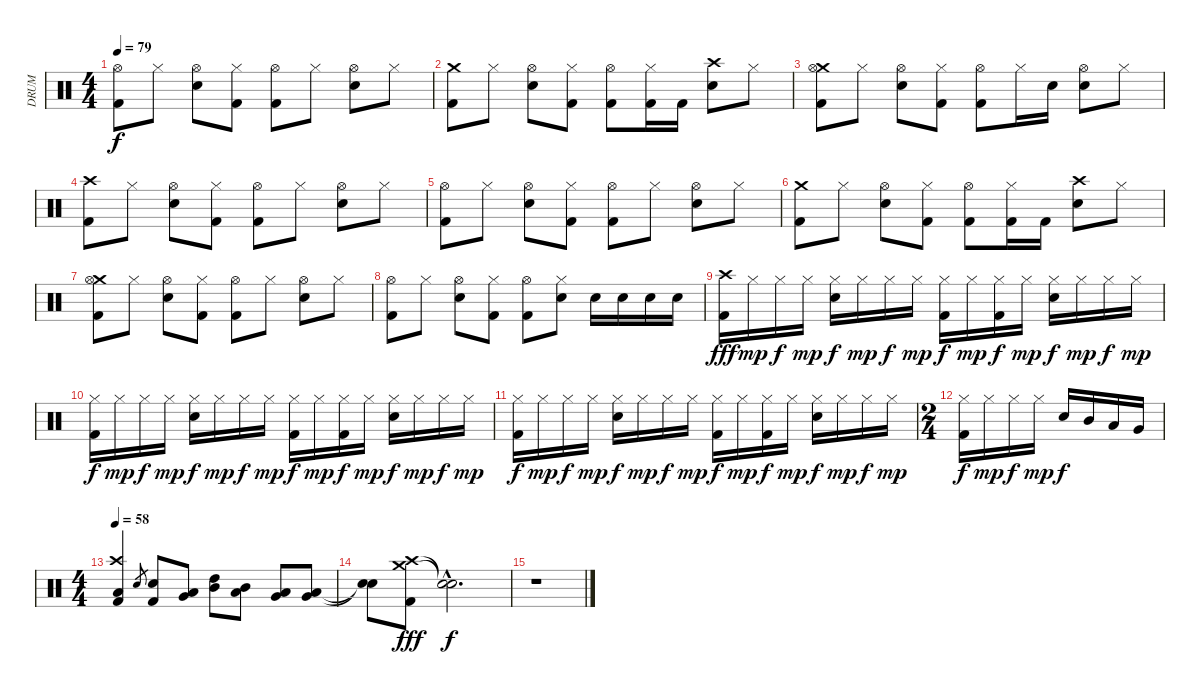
\track ("DRUM" "DRUM") {instrument percussion}
\staff {score}
\articulation defaults
\ts (4 4)
\tempo 79
\clef neutral
\ks c
("Hi-Hat (open)" "Kick (hit) 2").8{dy f} "Hi-Hat (closed)".8 ("Snare (hit) 2" "Hi-Hat (open)").8 ("Hi-Hat (closed)" "Kick (hit) 2").8 ("Hi-Hat (open)" "Kick (hit) 2").8 "Hi-Hat (closed)".8 ("Snare (hit) 2" "Hi-Hat (open)").8 "Hi-Hat (closed)".8 |
("Crash medium (hit)" "Kick (hit) 2").8 "Hi-Hat (closed)".8 ("Snare (hit) 2" "Hi-Hat (open)").8 ("Hi-Hat (closed)" "Kick (hit) 2").8 ("Hi-Hat (open)" "Kick (hit) 2").8 ("Hi-Hat (closed)" "Kick (hit) 2").16 "Kick (hit) 2".16 ("Crash high (hit)" "Snare (hit) 2").8 "Hi-Hat (closed)".8 |
("Crash medium (hit)" "Hi-Hat (open)" "Kick (hit) 2").8 "Hi-Hat (closed)".8 ("Snare (hit) 2" "Hi-Hat (open)").8 ("Hi-Hat (closed)" "Kick (hit) 2").8 ("Hi-Hat (open)" "Kick (hit) 2").8 "Hi-Hat (closed)".16 "Snare (hit) 2".16 ("Snare (hit) 2" "Hi-Hat (open)").8 "Hi-Hat (closed)".8 |
("Crash high (hit)" "Kick (hit) 2").8 "Hi-Hat (closed)".8 ("Snare (hit) 2" "Hi-Hat (open)").8 ("Hi-Hat (closed)" "Kick (hit) 2").8 ("Hi-Hat (open)" "Kick (hit) 2").8 "Hi-Hat (closed)".8 ("Snare (hit) 2" "Hi-Hat (open)").8 "Hi-Hat (closed)".8 |
("Hi-Hat (open)" "Kick (hit) 2").8 "Hi-Hat (closed)".8 ("Snare (hit) 2" "Hi-Hat (open)").8 ("Hi-Hat (closed)" "Kick (hit) 2").8 ("Hi-Hat (open)" "Kick (hit) 2").8 "Hi-Hat (closed)".8 ("Snare (hit) 2" "Hi-Hat (open)").8 "Hi-Hat (closed)".8 |
("Crash medium (hit)" "Kick (hit) 2").8 "Hi-Hat (closed)".8 ("Snare (hit) 2" "Hi-Hat (open)").8 ("Hi-Hat (closed)" "Kick (hit) 2").8 ("Hi-Hat (open)" "Kick (hit) 2").8 ("Hi-Hat (closed)" "Kick (hit) 2").16 "Kick (hit) 2".16 ("Crash high (hit)" "Snare (hit) 2").8 "Hi-Hat (closed)".8 |
("Crash medium (hit)" "Hi-Hat (open)" "Kick (hit) 2").8 "Hi-Hat (closed)".8 ("Snare (hit) 2" "Hi-Hat (open)").8 ("Hi-Hat (closed)" "Kick (hit) 2").8 ("Hi-Hat (open)" "Kick (hit) 2").8 "Hi-Hat (closed)".8 ("Snare (hit) 2" "Hi-Hat (open)").8 "Hi-Hat (closed)".8 |
("Hi-Hat (open)" "Kick (hit) 2").8 "Hi-Hat (closed)".8 ("Snare (hit) 2" "Hi-Hat (open)").8 ("Hi-Hat (closed)" "Kick (hit) 2").8 ("Hi-Hat (open)" "Kick (hit) 2").8 ("Snare (hit) 2" "Hi-Hat (closed)").8 "Snare (hit) 2".16 "Snare (hit) 2".16 "Snare (hit) 2".16 "Snare (hit) 2".16 |
("Crash high (hit)" "Kick (hit) 2").16{dy fff} "Hi-Hat (closed)".16{dy mp} "Hi-Hat (closed)".16{dy f} "Hi-Hat (closed)".16{dy mp} ("Snare (hit) 2" "Hi-Hat (closed)").16{dy f} "Hi-Hat (closed)".16{dy mp} "Hi-Hat (closed)".16{dy f} "Hi-Hat (closed)".16{dy mp} ("Hi-Hat (closed)" "Kick (hit) 2").16{dy f} "Hi-Hat (closed)".16{dy mp} ("Hi-Hat (closed)" "Kick (hit) 2").16{dy f} "Hi-Hat (closed)".16{dy mp} ("Snare (hit) 2" "Hi-Hat (closed)").16{dy f} "Hi-Hat (closed)".16{dy mp} "Hi-Hat (closed)".16{dy f} "Hi-Hat (closed)".16{dy mp} |
("Hi-Hat (closed)" "Kick (hit) 2").16{dy f} "Hi-Hat (closed)".16{dy mp} "Hi-Hat (closed)".16{dy f} "Hi-Hat (closed)".16{dy mp} ("Snare (hit) 2" "Hi-Hat (closed)").16{dy f} "Hi-Hat (closed)".16{dy mp} "Hi-Hat (closed)".16{dy f} "Hi-Hat (closed)".16{dy mp} ("Hi-Hat (closed)" "Kick (hit) 2").16{dy f} "Hi-Hat (closed)".16{dy mp} ("Hi-Hat (closed)" "Kick (hit) 2").16{dy f} "Hi-Hat (closed)".16{dy mp} ("Snare (hit) 2" "Hi-Hat (closed)").16{dy f} "Hi-Hat (closed)".16{dy mp} "Hi-Hat (closed)".16{dy f} "Hi-Hat (closed)".16{dy mp} |
("Hi-Hat (closed)" "Kick (hit) 2").16{dy f} "Hi-Hat (closed)".16{dy mp} "Hi-Hat (closed)".16{dy f} "Hi-Hat (closed)".16{dy mp} ("Snare (hit) 2" "Hi-Hat (closed)").16{dy f} "Hi-Hat (closed)".16{dy mp} "Hi-Hat (closed)".16{dy f} "Hi-Hat (closed)".16{dy mp} ("Hi-Hat (closed)" "Kick (hit) 2").16{dy f} "Hi-Hat (closed)".16{dy mp} ("Hi-Hat (closed)" "Kick (hit) 2").16{dy f} "Hi-Hat (closed)".16{dy mp} ("Snare (hit) 2" "Hi-Hat (closed)").16{dy f} "Hi-Hat (closed)".16{dy mp} "Hi-Hat (closed)".16{dy f} "Hi-Hat (closed)".16{dy mp} |
\ts (2 4)
("Hi-Hat (closed)" "Kick (hit) 2").16{dy f} "Hi-Hat (closed)".16{dy mp} "Hi-Hat (closed)".16{dy f} "Hi-Hat (closed)".16{dy mp} "Snare (hit) 2".16{dy f} "Mid Tom (hit)".16 "Low Tom (hit)".16 "Very Low Tom (hit)".16 |
\ts (4 4)
\tempo 58
("Crash high (hit)" "Low Floor Tom (hit)" "Kick (hit) 2").4 "Snare (hit) 2".8{gr} ("Snare (hit) 2" "Kick (hit) 2").8 ("Low Tom (hit)" "Very Low Tom (hit)").8 ("High Tom (hit)" "Mid Tom (hit)").8 ("Mid Tom (hit)" "Low Tom (hit)").8 ("Low Tom (hit)" "Very Low Tom (hit)").8 ("Very Low Tom (hit)" "Low Floor Tom (hit)").8 |
("Snare (hit)"{t} "Snare (hit)"{t}).8 ("Crash high (hit)" "Crash medium (hit)" "Kick (hit) 2").8{dy fff} ("Snare (hit)"{hac t} "Snare (hit)"{hac t}).2{d dy f} |
r.1
